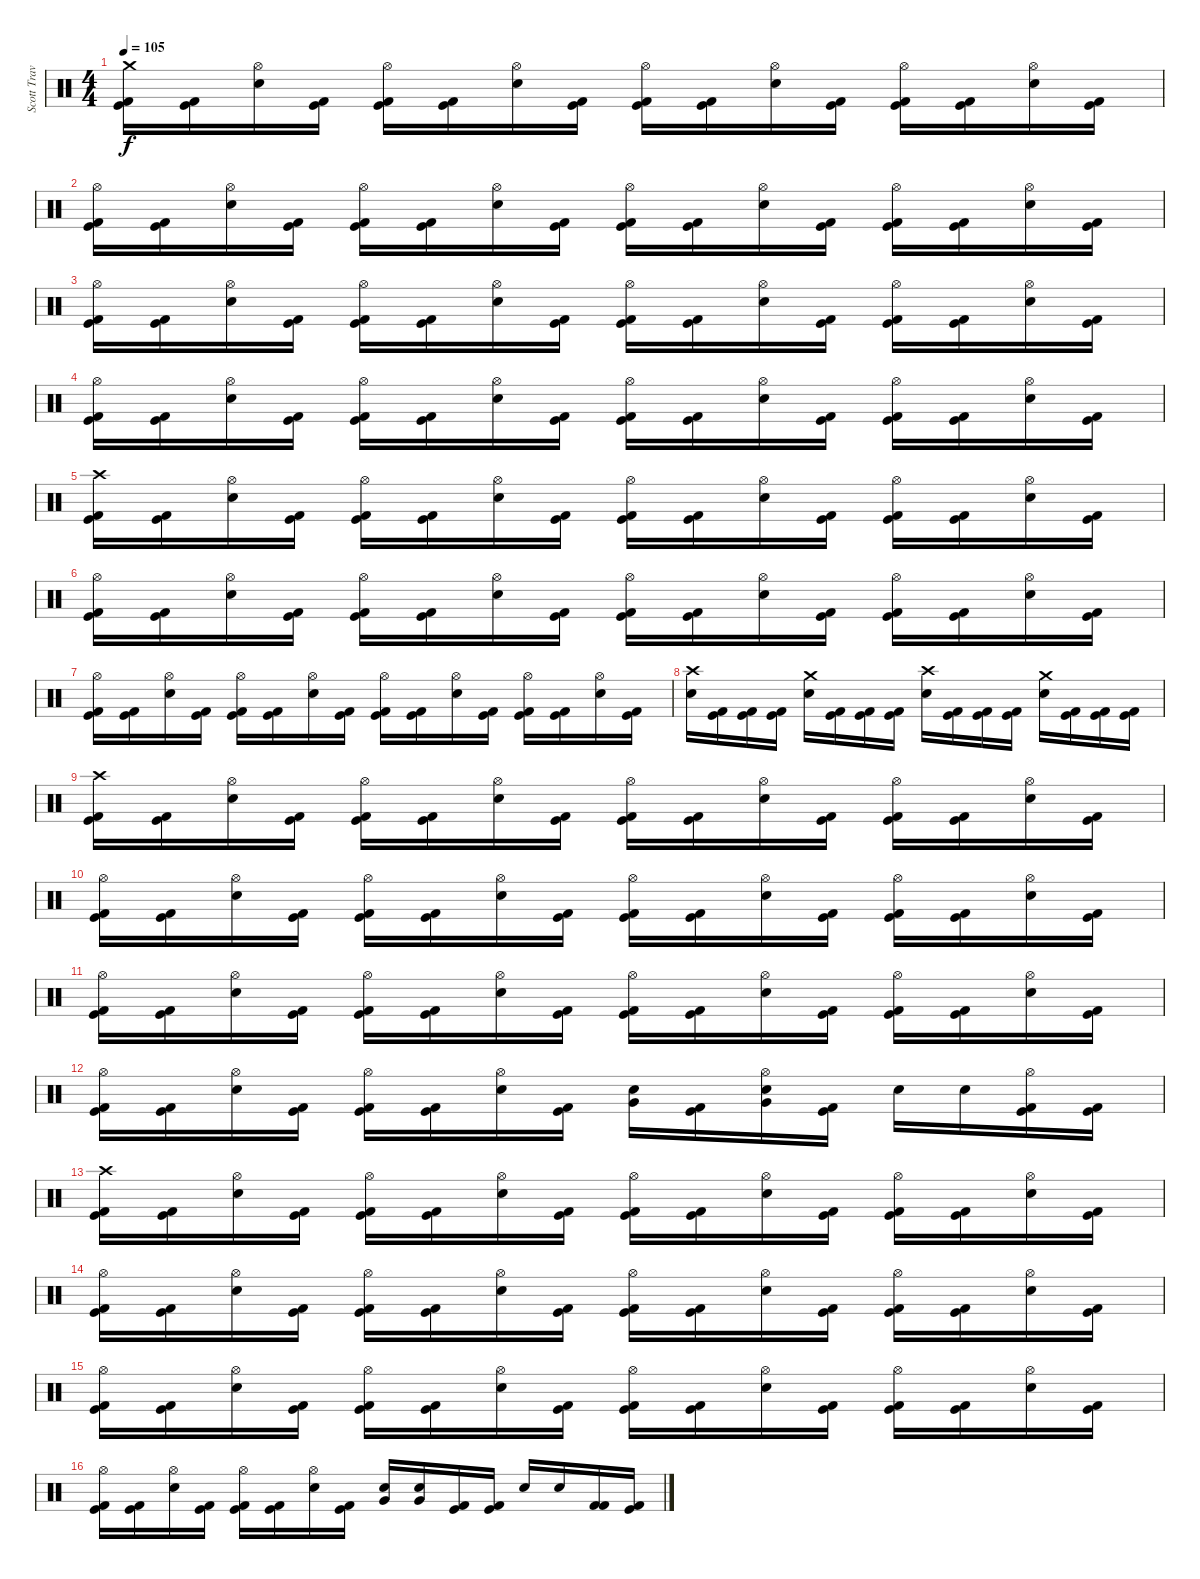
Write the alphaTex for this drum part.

\track ("Scott Travis" "Scott Trav") {instrument percussion}
\staff {score}
\articulation defaults
\ts (4 4)
\tempo 105
\clef neutral
\ks c
("Crash medium (hit)" "Kick (hit) 2" "Kick (hit)").16{dy f} ("Kick (hit) 2" "Kick (hit)").16 ("Hi-Hat (open)" "Snare (hit) 2").16 ("Kick (hit) 2" "Kick (hit)").16 ("Hi-Hat (open)" "Kick (hit) 2" "Kick (hit)").16 ("Kick (hit) 2" "Kick (hit)").16 ("Hi-Hat (open)" "Snare (hit) 2").16 ("Kick (hit) 2" "Kick (hit)").16 ("Hi-Hat (open)" "Kick (hit) 2" "Kick (hit)").16 ("Kick (hit) 2" "Kick (hit)").16 ("Hi-Hat (open)" "Snare (hit) 2").16 ("Kick (hit) 2" "Kick (hit)").16 ("Hi-Hat (open)" "Kick (hit) 2" "Kick (hit)").16 ("Kick (hit) 2" "Kick (hit)").16 ("Hi-Hat (open)" "Snare (hit) 2").16 ("Kick (hit) 2" "Kick (hit)").16 |
("Hi-Hat (open)" "Kick (hit) 2" "Kick (hit)").16 ("Kick (hit) 2" "Kick (hit)").16 ("Hi-Hat (open)" "Snare (hit) 2").16 ("Kick (hit) 2" "Kick (hit)").16 ("Hi-Hat (open)" "Kick (hit) 2" "Kick (hit)").16 ("Kick (hit) 2" "Kick (hit)").16 ("Hi-Hat (open)" "Snare (hit) 2").16 ("Kick (hit) 2" "Kick (hit)").16 ("Hi-Hat (open)" "Kick (hit) 2" "Kick (hit)").16 ("Kick (hit) 2" "Kick (hit)").16 ("Hi-Hat (open)" "Snare (hit) 2").16 ("Kick (hit) 2" "Kick (hit)").16 ("Hi-Hat (open)" "Kick (hit) 2" "Kick (hit)").16 ("Kick (hit) 2" "Kick (hit)").16 ("Hi-Hat (open)" "Snare (hit) 2").16 ("Kick (hit) 2" "Kick (hit)").16 |
("Hi-Hat (open)" "Kick (hit) 2" "Kick (hit)").16 ("Kick (hit) 2" "Kick (hit)").16 ("Hi-Hat (open)" "Snare (hit) 2").16 ("Kick (hit) 2" "Kick (hit)").16 ("Hi-Hat (open)" "Kick (hit) 2" "Kick (hit)").16 ("Kick (hit) 2" "Kick (hit)").16 ("Hi-Hat (open)" "Snare (hit) 2").16 ("Kick (hit) 2" "Kick (hit)").16 ("Hi-Hat (open)" "Kick (hit) 2" "Kick (hit)").16 ("Kick (hit) 2" "Kick (hit)").16 ("Hi-Hat (open)" "Snare (hit) 2").16 ("Kick (hit) 2" "Kick (hit)").16 ("Hi-Hat (open)" "Kick (hit) 2" "Kick (hit)").16 ("Kick (hit) 2" "Kick (hit)").16 ("Hi-Hat (open)" "Snare (hit) 2").16 ("Kick (hit) 2" "Kick (hit)").16 |
("Hi-Hat (open)" "Kick (hit) 2" "Kick (hit)").16 ("Kick (hit) 2" "Kick (hit)").16 ("Hi-Hat (open)" "Snare (hit) 2").16 ("Kick (hit) 2" "Kick (hit)").16 ("Hi-Hat (open)" "Kick (hit) 2" "Kick (hit)").16 ("Kick (hit) 2" "Kick (hit)").16 ("Hi-Hat (open)" "Snare (hit) 2").16 ("Kick (hit) 2" "Kick (hit)").16 ("Hi-Hat (open)" "Kick (hit) 2" "Kick (hit)").16 ("Kick (hit) 2" "Kick (hit)").16 ("Hi-Hat (open)" "Snare (hit) 2").16 ("Kick (hit) 2" "Kick (hit)").16 ("Hi-Hat (open)" "Kick (hit) 2" "Kick (hit)").16 ("Kick (hit) 2" "Kick (hit)").16 ("Hi-Hat (open)" "Snare (hit) 2").16 ("Kick (hit) 2" "Kick (hit)").16 |
("Crash high (hit)" "Kick (hit) 2" "Kick (hit)").16 ("Kick (hit) 2" "Kick (hit)").16 ("Hi-Hat (open)" "Snare (hit) 2").16 ("Kick (hit) 2" "Kick (hit)").16 ("Hi-Hat (open)" "Kick (hit) 2" "Kick (hit)").16 ("Kick (hit) 2" "Kick (hit)").16 ("Hi-Hat (open)" "Snare (hit) 2").16 ("Kick (hit) 2" "Kick (hit)").16 ("Hi-Hat (open)" "Kick (hit) 2" "Kick (hit)").16 ("Kick (hit) 2" "Kick (hit)").16 ("Hi-Hat (open)" "Snare (hit) 2").16 ("Kick (hit) 2" "Kick (hit)").16 ("Hi-Hat (open)" "Kick (hit) 2" "Kick (hit)").16 ("Kick (hit) 2" "Kick (hit)").16 ("Hi-Hat (open)" "Snare (hit) 2").16 ("Kick (hit) 2" "Kick (hit)").16 |
("Hi-Hat (open)" "Kick (hit) 2" "Kick (hit)").16 ("Kick (hit) 2" "Kick (hit)").16 ("Hi-Hat (open)" "Snare (hit) 2").16 ("Kick (hit) 2" "Kick (hit)").16 ("Hi-Hat (open)" "Kick (hit) 2" "Kick (hit)").16 ("Kick (hit) 2" "Kick (hit)").16 ("Hi-Hat (open)" "Snare (hit) 2").16 ("Kick (hit) 2" "Kick (hit)").16 ("Hi-Hat (open)" "Kick (hit) 2" "Kick (hit)").16 ("Kick (hit) 2" "Kick (hit)").16 ("Hi-Hat (open)" "Snare (hit) 2").16 ("Kick (hit) 2" "Kick (hit)").16 ("Hi-Hat (open)" "Kick (hit) 2" "Kick (hit)").16 ("Kick (hit) 2" "Kick (hit)").16 ("Hi-Hat (open)" "Snare (hit) 2").16 ("Kick (hit) 2" "Kick (hit)").16 |
("Hi-Hat (open)" "Kick (hit) 2" "Kick (hit)").16 ("Kick (hit) 2" "Kick (hit)").16 ("Hi-Hat (open)" "Snare (hit) 2").16 ("Kick (hit) 2" "Kick (hit)").16 ("Hi-Hat (open)" "Kick (hit) 2" "Kick (hit)").16 ("Kick (hit) 2" "Kick (hit)").16 ("Hi-Hat (open)" "Snare (hit) 2").16 ("Kick (hit) 2" "Kick (hit)").16 ("Hi-Hat (open)" "Kick (hit) 2" "Kick (hit)").16 ("Kick (hit) 2" "Kick (hit)").16 ("Hi-Hat (open)" "Snare (hit) 2").16 ("Kick (hit) 2" "Kick (hit)").16 ("Hi-Hat (open)" "Kick (hit) 2" "Kick (hit)").16 ("Kick (hit) 2" "Kick (hit)").16 ("Hi-Hat (open)" "Snare (hit) 2").16 ("Kick (hit) 2" "Kick (hit)").16 |
("Crash high (hit)" "Snare (hit) 2").16 ("Kick (hit) 2" "Kick (hit)").16 ("Kick (hit) 2" "Kick (hit)").16 ("Kick (hit) 2" "Kick (hit)").16 ("Crash medium (hit)" "Snare (hit) 2").16 ("Kick (hit) 2" "Kick (hit)").16 ("Kick (hit)" "Kick (hit) 2").16 ("Kick (hit) 2" "Kick (hit)").16 ("Crash high (hit)" "Snare (hit) 2").16 ("Kick (hit) 2" "Kick (hit)").16 ("Kick (hit)" "Kick (hit) 2").16 ("Kick (hit) 2" "Kick (hit)").16 ("Crash medium (hit)" "Snare (hit) 2").16 ("Kick (hit) 2" "Kick (hit)").16 ("Kick (hit) 2" "Kick (hit)").16 ("Kick (hit) 2" "Kick (hit)").16 |
("Crash high (hit)" "Kick (hit) 2" "Kick (hit)").16 ("Kick (hit) 2" "Kick (hit)").16 ("Hi-Hat (open)" "Snare (hit) 2").16 ("Kick (hit) 2" "Kick (hit)").16 ("Hi-Hat (open)" "Kick (hit) 2" "Kick (hit)").16 ("Kick (hit) 2" "Kick (hit)").16 ("Hi-Hat (open)" "Snare (hit) 2").16 ("Kick (hit) 2" "Kick (hit)").16 ("Hi-Hat (open)" "Kick (hit) 2" "Kick (hit)").16 ("Kick (hit) 2" "Kick (hit)").16 ("Hi-Hat (open)" "Snare (hit) 2").16 ("Kick (hit) 2" "Kick (hit)").16 ("Hi-Hat (open)" "Kick (hit) 2" "Kick (hit)").16 ("Kick (hit) 2" "Kick (hit)").16 ("Hi-Hat (open)" "Snare (hit) 2").16 ("Kick (hit) 2" "Kick (hit)").16 |
("Hi-Hat (open)" "Kick (hit) 2" "Kick (hit)").16 ("Kick (hit) 2" "Kick (hit)").16 ("Hi-Hat (open)" "Snare (hit) 2").16 ("Kick (hit) 2" "Kick (hit)").16 ("Hi-Hat (open)" "Kick (hit) 2" "Kick (hit)").16 ("Kick (hit) 2" "Kick (hit)").16 ("Hi-Hat (open)" "Snare (hit) 2").16 ("Kick (hit) 2" "Kick (hit)").16 ("Hi-Hat (open)" "Kick (hit) 2" "Kick (hit)").16 ("Kick (hit) 2" "Kick (hit)").16 ("Hi-Hat (open)" "Snare (hit) 2").16 ("Kick (hit) 2" "Kick (hit)").16 ("Hi-Hat (open)" "Kick (hit) 2" "Kick (hit)").16 ("Kick (hit) 2" "Kick (hit)").16 ("Hi-Hat (open)" "Snare (hit) 2").16 ("Kick (hit) 2" "Kick (hit)").16 |
("Hi-Hat (open)" "Kick (hit) 2" "Kick (hit)").16 ("Kick (hit) 2" "Kick (hit)").16 ("Hi-Hat (open)" "Snare (hit) 2").16 ("Kick (hit) 2" "Kick (hit)").16 ("Hi-Hat (open)" "Kick (hit) 2" "Kick (hit)").16 ("Kick (hit) 2" "Kick (hit)").16 ("Hi-Hat (open)" "Snare (hit) 2").16 ("Kick (hit) 2" "Kick (hit)").16 ("Hi-Hat (open)" "Kick (hit) 2" "Kick (hit)").16 ("Kick (hit) 2" "Kick (hit)").16 ("Hi-Hat (open)" "Snare (hit) 2").16 ("Kick (hit) 2" "Kick (hit)").16 ("Hi-Hat (open)" "Kick (hit) 2" "Kick (hit)").16 ("Kick (hit) 2" "Kick (hit)").16 ("Hi-Hat (open)" "Snare (hit) 2").16 ("Kick (hit) 2" "Kick (hit)").16 |
("Hi-Hat (open)" "Kick (hit) 2" "Kick (hit)").16 ("Kick (hit) 2" "Kick (hit)").16 ("Hi-Hat (open)" "Snare (hit) 2").16 ("Kick (hit) 2" "Kick (hit)").16 ("Hi-Hat (open)" "Kick (hit) 2" "Kick (hit)").16 ("Kick (hit) 2" "Kick (hit)").16 ("Hi-Hat (open)" "Snare (hit) 2").16 ("Kick (hit) 2" "Kick (hit)").16 ("Snare (hit) 2" "Very Low Tom (hit)").16 ("Kick (hit) 2" "Kick (hit)").16 ("Hi-Hat (open)" "Snare (hit) 2" "Very Low Tom (hit)").16 ("Kick (hit) 2" "Kick (hit)").16 "Snare (hit) 2".16 "Snare (hit) 2".16 ("Hi-Hat (open)" "Kick (hit)" "Kick (hit) 2").16 ("Kick (hit) 2" "Kick (hit)").16 |
("Crash high (hit)" "Kick (hit) 2" "Kick (hit)").16 ("Kick (hit) 2" "Kick (hit)").16 ("Hi-Hat (open)" "Snare (hit) 2").16 ("Kick (hit) 2" "Kick (hit)").16 ("Hi-Hat (open)" "Kick (hit) 2" "Kick (hit)").16 ("Kick (hit) 2" "Kick (hit)").16 ("Hi-Hat (open)" "Snare (hit) 2").16 ("Kick (hit) 2" "Kick (hit)").16 ("Hi-Hat (open)" "Kick (hit) 2" "Kick (hit)").16 ("Kick (hit) 2" "Kick (hit)").16 ("Hi-Hat (open)" "Snare (hit) 2").16 ("Kick (hit) 2" "Kick (hit)").16 ("Hi-Hat (open)" "Kick (hit) 2" "Kick (hit)").16 ("Kick (hit) 2" "Kick (hit)").16 ("Hi-Hat (open)" "Snare (hit) 2").16 ("Kick (hit) 2" "Kick (hit)").16 |
("Hi-Hat (open)" "Kick (hit) 2" "Kick (hit)").16 ("Kick (hit) 2" "Kick (hit)").16 ("Hi-Hat (open)" "Snare (hit) 2").16 ("Kick (hit) 2" "Kick (hit)").16 ("Hi-Hat (open)" "Kick (hit) 2" "Kick (hit)").16 ("Kick (hit) 2" "Kick (hit)").16 ("Hi-Hat (open)" "Snare (hit) 2").16 ("Kick (hit) 2" "Kick (hit)").16 ("Hi-Hat (open)" "Kick (hit) 2" "Kick (hit)").16 ("Kick (hit) 2" "Kick (hit)").16 ("Hi-Hat (open)" "Snare (hit) 2").16 ("Kick (hit) 2" "Kick (hit)").16 ("Hi-Hat (open)" "Kick (hit) 2" "Kick (hit)").16 ("Kick (hit) 2" "Kick (hit)").16 ("Hi-Hat (open)" "Snare (hit) 2").16 ("Kick (hit) 2" "Kick (hit)").16 |
("Hi-Hat (open)" "Kick (hit) 2" "Kick (hit)").16 ("Kick (hit) 2" "Kick (hit)").16 ("Hi-Hat (open)" "Snare (hit) 2").16 ("Kick (hit) 2" "Kick (hit)").16 ("Hi-Hat (open)" "Kick (hit) 2" "Kick (hit)").16 ("Kick (hit) 2" "Kick (hit)").16 ("Hi-Hat (open)" "Snare (hit) 2").16 ("Kick (hit) 2" "Kick (hit)").16 ("Hi-Hat (open)" "Kick (hit) 2" "Kick (hit)").16 ("Kick (hit) 2" "Kick (hit)").16 ("Hi-Hat (open)" "Snare (hit) 2").16 ("Kick (hit) 2" "Kick (hit)").16 ("Hi-Hat (open)" "Kick (hit) 2" "Kick (hit)").16 ("Kick (hit) 2" "Kick (hit)").16 ("Hi-Hat (open)" "Snare (hit) 2").16 ("Kick (hit) 2" "Kick (hit)").16 |
("Hi-Hat (open)" "Kick (hit) 2" "Kick (hit)").16 ("Kick (hit) 2" "Kick (hit)").16 ("Hi-Hat (open)" "Snare (hit) 2").16 ("Kick (hit) 2" "Kick (hit)").16 ("Hi-Hat (open)" "Kick (hit) 2" "Kick (hit)").16 ("Kick (hit) 2" "Kick (hit)").16 ("Hi-Hat (open)" "Snare (hit) 2").16 ("Kick (hit) 2" "Kick (hit)").16 ("Snare (hit) 2" "Very Low Tom (hit)").16 ("Snare (hit) 2" "Very Low Tom (hit)").16 ("Kick (hit)" "Kick (hit) 2").16 ("Kick (hit) 2" "Kick (hit)").16 "Snare (hit) 2".16 "Snare (hit) 2".16 ("Kick (hit) 2" "Kick (hit) 2").16 ("Kick (hit) 2" "Kick (hit)").16
